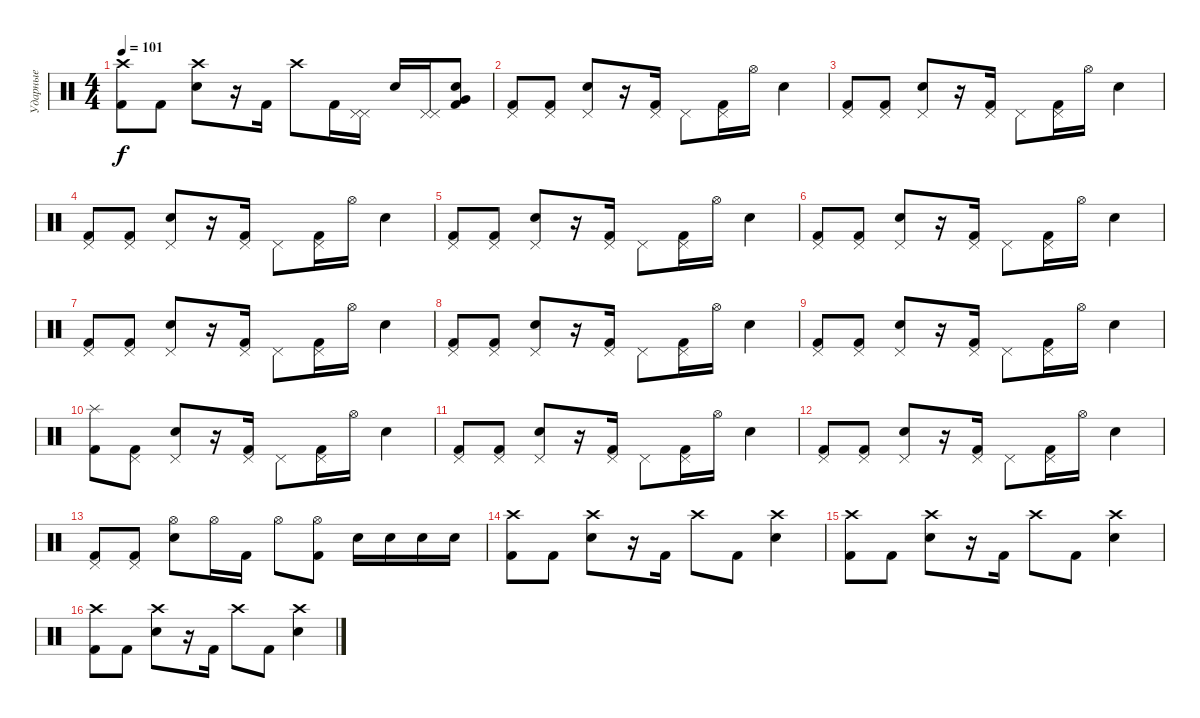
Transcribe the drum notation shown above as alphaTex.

\track ("Ударные" "Ударные") {instrument percussion}
\staff {score}
\articulation defaults
\ts (4 4)
\tempo 101
\clef neutral
\ks c
("Crash high (hit)" "Kick (hit) 2").8{dy f} "Kick (hit) 2".8 ("Crash high (hit)" "Snare (hit) 2").8 r.16 "Kick (hit) 2".16 "Crash high (hit)".8 "Kick (hit) 2".16 ("Pedal Hi-Hat (hit)" "Pedal Hi-Hat (hit)").16 "Snare (hit) 2".16 ("Pedal Hi-Hat (hit)" "Pedal Hi-Hat (hit)").16 ("Kick (hit) 2" "Snare (hit) 2" "Very Low Tom (hit)").8 |
("Pedal Hi-Hat (hit)" "Kick (hit) 2").8 ("Pedal Hi-Hat (hit)" "Kick (hit) 2").8 ("Pedal Hi-Hat (hit)" "Snare (hit) 2").8 r.16 ("Pedal Hi-Hat (hit)" "Kick (hit) 2").16 "Pedal Hi-Hat (hit)".8 ("Pedal Hi-Hat (hit)" "Kick (hit) 2").16 "Hi-Hat (open)".16 "Snare (hit) 2".4 |
("Pedal Hi-Hat (hit)" "Kick (hit) 2").8 ("Pedal Hi-Hat (hit)" "Kick (hit) 2").8 ("Pedal Hi-Hat (hit)" "Snare (hit) 2").8 r.16 ("Pedal Hi-Hat (hit)" "Kick (hit) 2").16 "Pedal Hi-Hat (hit)".8 ("Pedal Hi-Hat (hit)" "Kick (hit) 2").16 "Hi-Hat (open)".16 "Snare (hit) 2".4 |
("Pedal Hi-Hat (hit)" "Kick (hit) 2").8 ("Pedal Hi-Hat (hit)" "Kick (hit) 2").8 ("Pedal Hi-Hat (hit)" "Snare (hit) 2").8 r.16 ("Pedal Hi-Hat (hit)" "Kick (hit) 2").16 "Pedal Hi-Hat (hit)".8 ("Pedal Hi-Hat (hit)" "Kick (hit) 2").16 "Hi-Hat (open)".16 "Snare (hit) 2".4 |
("Pedal Hi-Hat (hit)" "Kick (hit) 2").8 ("Pedal Hi-Hat (hit)" "Kick (hit) 2").8 ("Pedal Hi-Hat (hit)" "Snare (hit) 2").8 r.16 ("Pedal Hi-Hat (hit)" "Kick (hit) 2").16 "Pedal Hi-Hat (hit)".8 ("Pedal Hi-Hat (hit)" "Kick (hit) 2").16 "Hi-Hat (open)".16 "Snare (hit) 2".4 |
("Pedal Hi-Hat (hit)" "Kick (hit) 2").8 ("Pedal Hi-Hat (hit)" "Kick (hit) 2").8 ("Pedal Hi-Hat (hit)" "Snare (hit) 2").8 r.16 ("Pedal Hi-Hat (hit)" "Kick (hit) 2").16 "Pedal Hi-Hat (hit)".8 ("Pedal Hi-Hat (hit)" "Kick (hit) 2").16 "Hi-Hat (open)".16 "Snare (hit) 2".4 |
("Pedal Hi-Hat (hit)" "Kick (hit) 2").8 ("Pedal Hi-Hat (hit)" "Kick (hit) 2").8 ("Pedal Hi-Hat (hit)" "Snare (hit) 2").8 r.16 ("Pedal Hi-Hat (hit)" "Kick (hit) 2").16 "Pedal Hi-Hat (hit)".8 ("Pedal Hi-Hat (hit)" "Kick (hit) 2").16 "Hi-Hat (open)".16 "Snare (hit) 2".4 |
("Pedal Hi-Hat (hit)" "Kick (hit) 2").8 ("Pedal Hi-Hat (hit)" "Kick (hit) 2").8 ("Pedal Hi-Hat (hit)" "Snare (hit) 2").8 r.16 ("Pedal Hi-Hat (hit)" "Kick (hit) 2").16 "Pedal Hi-Hat (hit)".8 ("Pedal Hi-Hat (hit)" "Kick (hit) 2").16 "Hi-Hat (open)".16 "Snare (hit) 2".4 |
("Pedal Hi-Hat (hit)" "Kick (hit) 2").8 ("Pedal Hi-Hat (hit)" "Kick (hit) 2").8 ("Pedal Hi-Hat (hit)" "Snare (hit) 2").8 r.16 ("Pedal Hi-Hat (hit)" "Kick (hit) 2").16 "Pedal Hi-Hat (hit)".8 ("Pedal Hi-Hat (hit)" "Kick (hit) 2").16 "Hi-Hat (open)".16 "Snare (hit) 2".4 |
("Splash (hit)" "Kick (hit) 2").8 ("Pedal Hi-Hat (hit)" "Kick (hit) 2").8 ("Pedal Hi-Hat (hit)" "Snare (hit) 2").8 r.16 ("Pedal Hi-Hat (hit)" "Kick (hit) 2").16 "Pedal Hi-Hat (hit)".8 ("Pedal Hi-Hat (hit)" "Kick (hit) 2").16 "Hi-Hat (open)".16 "Snare (hit) 2".4 |
("Pedal Hi-Hat (hit)" "Kick (hit) 2").8 ("Pedal Hi-Hat (hit)" "Kick (hit) 2").8 ("Pedal Hi-Hat (hit)" "Snare (hit) 2").8 r.16 ("Pedal Hi-Hat (hit)" "Kick (hit) 2").16 "Pedal Hi-Hat (hit)".8 ("Pedal Hi-Hat (hit)" "Kick (hit) 2").16 "Hi-Hat (open)".16 "Snare (hit) 2".4 |
("Pedal Hi-Hat (hit)" "Kick (hit) 2").8 ("Pedal Hi-Hat (hit)" "Kick (hit) 2").8 ("Pedal Hi-Hat (hit)" "Snare (hit) 2").8 r.16 ("Pedal Hi-Hat (hit)" "Kick (hit) 2").16 "Pedal Hi-Hat (hit)".8 ("Pedal Hi-Hat (hit)" "Kick (hit) 2").16 "Hi-Hat (open)".16 "Snare (hit) 2".4 |
("Pedal Hi-Hat (hit)" "Kick (hit) 2").8 ("Pedal Hi-Hat (hit)" "Kick (hit) 2").8 ("Hi-Hat (open)" "Snare (hit) 2").8 "Hi-Hat (open)".16 "Kick (hit) 2".16 "Hi-Hat (open)".8 ("Hi-Hat (open)" "Kick (hit) 2").8 "Snare (hit) 2".16 "Snare (hit) 2".16 "Snare (hit) 2".16 "Snare (hit) 2".16 |
("Crash high (hit)" "Kick (hit) 2").8 "Kick (hit) 2".8 ("Crash high (hit)" "Snare (hit) 2").8 r.16 "Kick (hit) 2".16 "Crash high (hit)".8 "Kick (hit) 2".8 ("Crash high (hit)" "Snare (hit) 2").4 |
("Crash high (hit)" "Kick (hit) 2").8 "Kick (hit) 2".8 ("Crash high (hit)" "Snare (hit) 2").8 r.16 "Kick (hit) 2".16 "Crash high (hit)".8 "Kick (hit) 2".8 ("Crash high (hit)" "Snare (hit) 2").4 |
("Crash high (hit)" "Kick (hit) 2").8 "Kick (hit) 2".8 ("Crash high (hit)" "Snare (hit) 2").8 r.16 "Kick (hit) 2".16 "Crash high (hit)".8 "Kick (hit) 2".8 ("Crash high (hit)" "Snare (hit) 2").4
